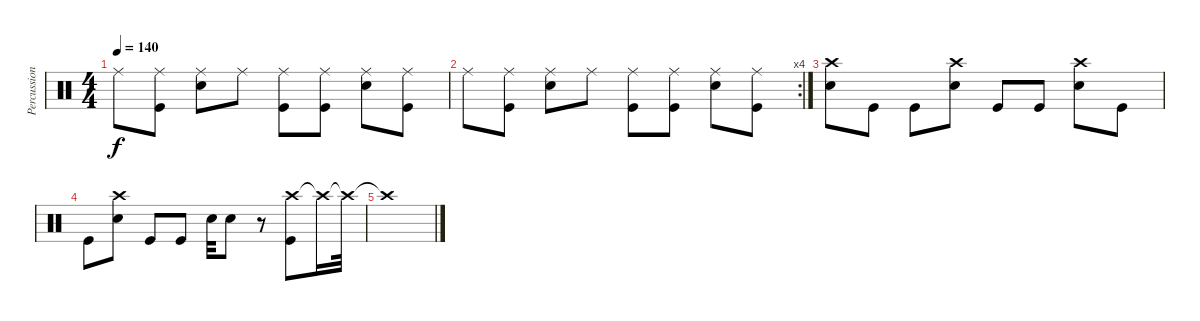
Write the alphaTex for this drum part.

\track ("Percussions" "Percussion") {instrument percussion}
\staff {score}
\articulation defaults
\ts (4 4)
\tempo 140
\clef neutral
\ks c "Ride (middle)".8{dy f}
("Ride (middle)" "Kick (hit)").8 ("Ride (middle)" "Electric Snare (hit)").8 "Ride (middle)".8 ("Ride (middle)" "Kick (hit)").8 ("Ride (middle)" "Kick (hit)").8 ("Ride (middle)" "Electric Snare (hit)").8 ("Ride (middle)" "Kick (hit)").8 |
\rc 4 "Ride (middle)".8
("Ride (middle)" "Kick (hit)").8 ("Ride (middle)" "Electric Snare (hit)").8 "Ride (middle)".8 ("Ride (middle)" "Kick (hit)").8 ("Ride (middle)" "Kick (hit)").8 ("Ride (middle)" "Electric Snare (hit)").8 ("Ride (middle)" "Kick (hit)").8 |
("Crash high (hit)" "Electric Snare (hit)").8 "Kick (hit)".8 "Kick (hit)".8 ("Crash high (hit)" "Electric Snare (hit)").8 "Kick (hit)".8 "Kick (hit)".8 ("Crash high (hit)" "Electric Snare (hit)").8 "Kick (hit)".8 |
"Kick (hit)".8 ("Crash high (hit)" "Electric Snare (hit)").8 "Kick (hit)".8 "Kick (hit)".8 "Electric Snare (hit)".32 "Electric Snare (hit)".8 r.8 ("Crash high (hit)" "Kick (hit)").8 "Crash high (hit)"{t}.16 "Crash high (hit)"{t}.32 |
"Crash high (hit)"{t}.1
